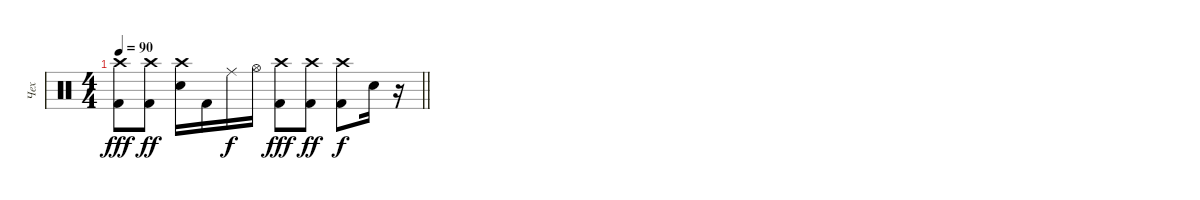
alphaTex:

\track ("Чех" "Чех") {instrument percussion}
\staff {score}
\articulation defaults
\ts (4 4)
\tempo 90
\clef neutral
\barLineRight lightlight
\ks c
("Crash high (hit)" "Kick (hit) 2").8{dy fff} ("Crash high (hit)" "Kick (hit) 2").8{dy ff} ("Crash high (hit)" "Electric Snare (hit)").16 "Kick (hit) 2".16 "Ride (middle)".16{dy f} "Hi-Hat (open)".16 ("Crash high (hit)" "Kick (hit) 2").8{dy fff} ("Crash high (hit)" "Kick (hit) 2").8{dy ff} ("Crash high (hit)" "Kick (hit) 2").8{dy f} "Electric Snare (hit)".16 r.16
